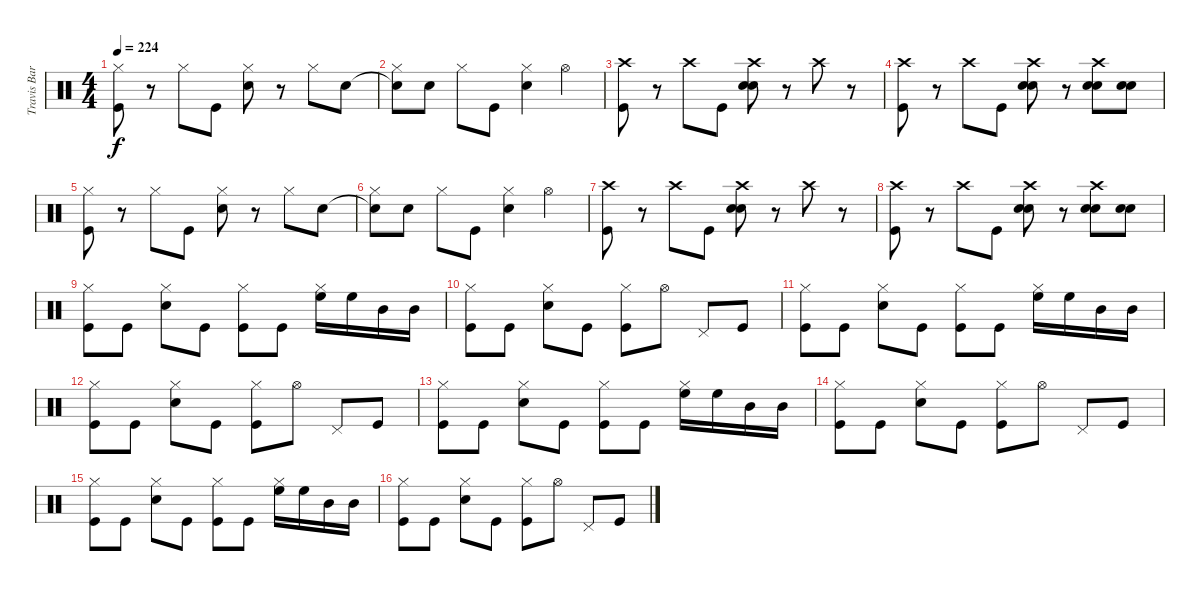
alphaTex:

\track ("Travis Barker (Drums)" "Travis Bar") {instrument percussion}
\staff {score}
\articulation defaults
\ts (4 4)
\tempo 224
\clef neutral
\ks c
("Kick (hit)" "Hi-Hat (closed)").8{dy f} r.8 "Hi-Hat (closed)".8 "Kick (hit)".8 ("Electric Snare (hit)" "Hi-Hat (closed)").8 r.8 "Hi-Hat (closed)".8 "Electric Snare (hit)".8 |
("Electric Snare (hit)"{t} "Hi-Hat (closed)").8 "Electric Snare (hit)".8 "Hi-Hat (closed)".8 "Kick (hit)".8 ("Electric Snare (hit)" "Hi-Hat (closed)").4 "Hi-Hat (open)".4 |
("Kick (hit)" "Crash high (hit)").8 r.8 "Crash high (hit)".8 "Kick (hit)".8 ("Electric Snare (hit)" "Electric Snare (hit)" "Crash high (hit)").8 r.8 "Crash high (hit)".8 r.8 |
("Kick (hit)" "Crash high (hit)").8 r.8 "Crash high (hit)".8 "Kick (hit)".8 ("Electric Snare (hit)" "Electric Snare (hit)" "Crash high (hit)").8 r.8 ("Electric Snare (hit)" "Electric Snare (hit)" "Crash high (hit)").8 ("Electric Snare (hit)" "Electric Snare (hit)").8 |
("Kick (hit)" "Hi-Hat (closed)").8 r.8 "Hi-Hat (closed)".8 "Kick (hit)".8 ("Electric Snare (hit)" "Hi-Hat (closed)").8 r.8 "Hi-Hat (closed)".8 "Electric Snare (hit)".8 |
("Electric Snare (hit)"{t} "Hi-Hat (closed)").8 "Electric Snare (hit)".8 "Hi-Hat (closed)".8 "Kick (hit)".8 ("Electric Snare (hit)" "Hi-Hat (closed)").4 "Hi-Hat (open)".4 |
("Kick (hit)" "Crash high (hit)").8 r.8 "Crash high (hit)".8 "Kick (hit)".8 ("Electric Snare (hit)" "Electric Snare (hit)" "Crash high (hit)").8 r.8 "Crash high (hit)".8 r.8 |
("Kick (hit)" "Crash high (hit)").8 r.8 "Crash high (hit)".8 "Kick (hit)".8 ("Electric Snare (hit)" "Electric Snare (hit)" "Crash high (hit)").8 r.8 ("Electric Snare (hit)" "Electric Snare (hit)" "Crash high (hit)").8 ("Electric Snare (hit)" "Electric Snare (hit)").8 |
("Kick (hit)" "Hi-Hat (closed)").8 "Kick (hit)".8 ("Electric Snare (hit)" "Hi-Hat (closed)").8 "Kick (hit)".8 ("Kick (hit)" "Hi-Hat (closed)").8 "Kick (hit)".8 ("High Floor Tom (hit)" "Hi-Hat (closed)").16 "High Floor Tom (hit)".16 "Mid Tom (hit)".16 "Mid Tom (hit)".16 |
("Kick (hit)" "Hi-Hat (closed)").8 "Kick (hit)".8 ("Electric Snare (hit)" "Hi-Hat (closed)").8 "Kick (hit)".8 ("Kick (hit)" "Hi-Hat (closed)").8 "Hi-Hat (open)".8 "Pedal Hi-Hat (hit)".8 "Kick (hit)".8 |
("Kick (hit)" "Hi-Hat (closed)").8 "Kick (hit)".8 ("Electric Snare (hit)" "Hi-Hat (closed)").8 "Kick (hit)".8 ("Kick (hit)" "Hi-Hat (closed)").8 "Kick (hit)".8 ("High Floor Tom (hit)" "Hi-Hat (closed)").16 "High Floor Tom (hit)".16 "Mid Tom (hit)".16 "Mid Tom (hit)".16 |
("Kick (hit)" "Hi-Hat (closed)").8 "Kick (hit)".8 ("Electric Snare (hit)" "Hi-Hat (closed)").8 "Kick (hit)".8 ("Kick (hit)" "Hi-Hat (closed)").8 "Hi-Hat (open)".8 "Pedal Hi-Hat (hit)".8 "Kick (hit)".8 |
("Kick (hit)" "Hi-Hat (closed)").8 "Kick (hit)".8 ("Electric Snare (hit)" "Hi-Hat (closed)").8 "Kick (hit)".8 ("Kick (hit)" "Hi-Hat (closed)").8 "Kick (hit)".8 ("High Floor Tom (hit)" "Hi-Hat (closed)").16 "High Floor Tom (hit)".16 "Mid Tom (hit)".16 "Mid Tom (hit)".16 |
("Kick (hit)" "Hi-Hat (closed)").8 "Kick (hit)".8 ("Electric Snare (hit)" "Hi-Hat (closed)").8 "Kick (hit)".8 ("Kick (hit)" "Hi-Hat (closed)").8 "Hi-Hat (open)".8 "Pedal Hi-Hat (hit)".8 "Kick (hit)".8 |
("Kick (hit)" "Hi-Hat (closed)").8 "Kick (hit)".8 ("Electric Snare (hit)" "Hi-Hat (closed)").8 "Kick (hit)".8 ("Kick (hit)" "Hi-Hat (closed)").8 "Kick (hit)".8 ("High Floor Tom (hit)" "Hi-Hat (closed)").16 "High Floor Tom (hit)".16 "Mid Tom (hit)".16 "Mid Tom (hit)".16 |
("Kick (hit)" "Hi-Hat (closed)").8 "Kick (hit)".8 ("Electric Snare (hit)" "Hi-Hat (closed)").8 "Kick (hit)".8 ("Kick (hit)" "Hi-Hat (closed)").8 "Hi-Hat (open)".8 "Pedal Hi-Hat (hit)".8 "Kick (hit)".8
